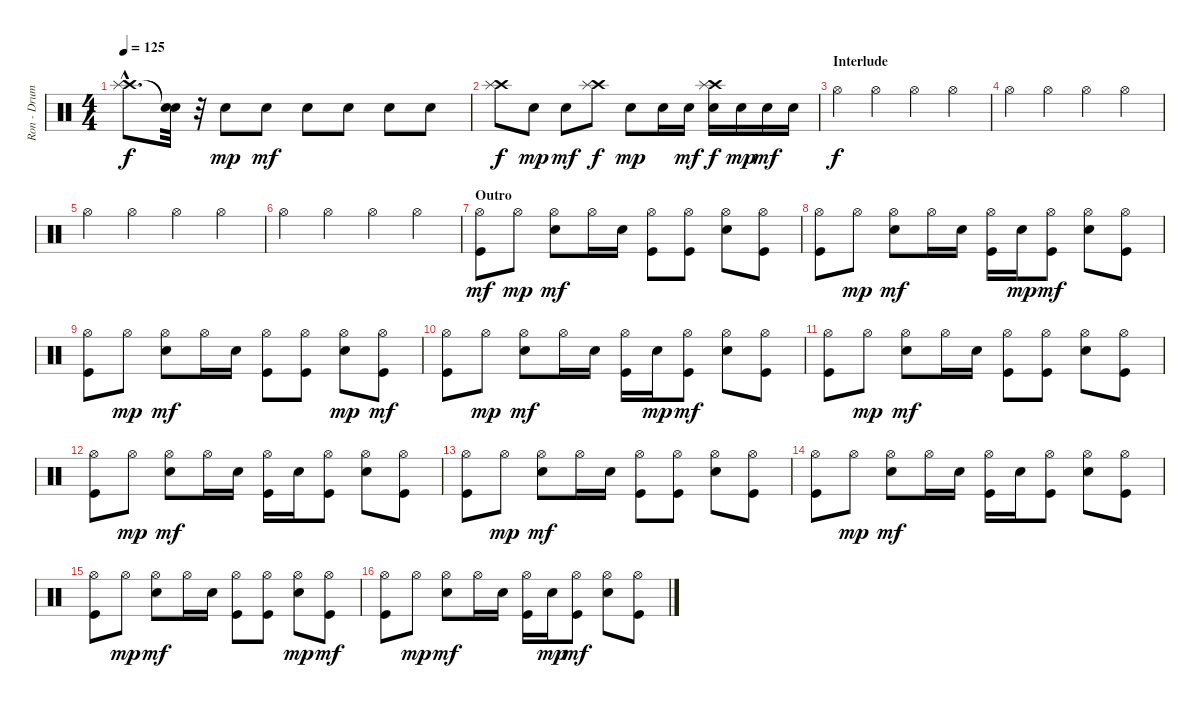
\track ("Ron - Drums" "Ron - Drum") {instrument percussion}
\staff {score}
\articulation defaults
\ts (4 4)
\tempo 125
\clef neutral
\ks c
("Crash high (hit)"{hac} "Splash (hit)"{hac}).8{d dy f} ("Snare (hit)"{t} "Snare (hit)"{t}).32 r.32 "Electric Snare (hit)".8{dy mp} "Electric Snare (hit)".8{dy mf} "Electric Snare (hit)".8 "Electric Snare (hit)".8 "Electric Snare (hit)".8 "Electric Snare (hit)".8 |
("Crash high (hit)" "Splash (hit)").8{dy f} "Electric Snare (hit)".8{dy mp} "Electric Snare (hit)".8{dy mf} ("Crash high (hit)" "Splash (hit)").8{dy f} "Electric Snare (hit)".8{dy mp} "Electric Snare (hit)".16 "Electric Snare (hit)".16{dy mf} ("Crash high (hit)" "Electric Snare (hit)" "Splash (hit)").16{dy f} "Electric Snare (hit)".16{dy mp} "Electric Snare (hit)".16{dy mf} "Electric Snare (hit)".16 |
\section ("" "Interlude")
"Hi-Hat (open)".4{dy f} "Hi-Hat (open)".4 "Hi-Hat (open)".4 "Hi-Hat (open)".4 |
"Hi-Hat (open)".4 "Hi-Hat (open)".4 "Hi-Hat (open)".4 "Hi-Hat (open)".4 |
"Hi-Hat (open)".4 "Hi-Hat (open)".4 "Hi-Hat (open)".4 "Hi-Hat (open)".4 |
"Hi-Hat (open)".4 "Hi-Hat (open)".4 "Hi-Hat (open)".4 "Hi-Hat (open)".4 |
\section ("" "Outro")
("Hi-Hat (open)" "Kick (hit)").8{dy mf} "Hi-Hat (open)".8{dy mp} ("Hi-Hat (open)" "Electric Snare (hit)").8{dy mf} "Hi-Hat (open)".16 "Electric Snare (hit)".16 ("Hi-Hat (open)" "Kick (hit)").8 ("Hi-Hat (open)" "Kick (hit)").8 ("Hi-Hat (open)" "Electric Snare (hit)").8 ("Hi-Hat (open)" "Kick (hit)").8 |
("Hi-Hat (open)" "Kick (hit)").8 "Hi-Hat (open)".8{dy mp} ("Hi-Hat (open)" "Electric Snare (hit)").8{dy mf} "Hi-Hat (open)".16 "Electric Snare (hit)".16 ("Hi-Hat (open)" "Kick (hit)").16 "Electric Snare (hit)".16{dy mp} ("Hi-Hat (open)" "Kick (hit)").8{dy mf} ("Hi-Hat (open)" "Electric Snare (hit)").8 ("Hi-Hat (open)" "Kick (hit)").8 |
("Hi-Hat (open)" "Kick (hit)").8 "Hi-Hat (open)".8{dy mp} ("Hi-Hat (open)" "Electric Snare (hit)").8{dy mf} "Hi-Hat (open)".16 "Electric Snare (hit)".16 ("Hi-Hat (open)" "Kick (hit)").8 ("Hi-Hat (open)" "Kick (hit)").8 ("Hi-Hat (open)" "Electric Snare (hit)").8{dy mp} ("Hi-Hat (open)" "Kick (hit)").8{dy mf} |
("Hi-Hat (open)" "Kick (hit)").8 "Hi-Hat (open)".8{dy mp} ("Hi-Hat (open)" "Electric Snare (hit)").8{dy mf} "Hi-Hat (open)".16 "Electric Snare (hit)".16 ("Hi-Hat (open)" "Kick (hit)").16 "Electric Snare (hit)".16{dy mp} ("Hi-Hat (open)" "Kick (hit)").8{dy mf} ("Hi-Hat (open)" "Electric Snare (hit)").8 ("Hi-Hat (open)" "Kick (hit)").8 |
("Hi-Hat (open)" "Kick (hit)").8 "Hi-Hat (open)".8{dy mp} ("Hi-Hat (open)" "Electric Snare (hit)").8{dy mf} "Hi-Hat (open)".16 "Electric Snare (hit)".16 ("Hi-Hat (open)" "Kick (hit)").8 ("Hi-Hat (open)" "Kick (hit)").8 ("Hi-Hat (open)" "Electric Snare (hit)").8 ("Hi-Hat (open)" "Kick (hit)").8 |
("Hi-Hat (open)" "Kick (hit)").8 "Hi-Hat (open)".8{dy mp} ("Hi-Hat (open)" "Electric Snare (hit)").8{dy mf} "Hi-Hat (open)".16 "Electric Snare (hit)".16 ("Hi-Hat (open)" "Kick (hit)").16 "Electric Snare (hit)".16 ("Hi-Hat (open)" "Kick (hit)").8 ("Hi-Hat (open)" "Electric Snare (hit)").8 ("Hi-Hat (open)" "Kick (hit)").8 |
("Hi-Hat (open)" "Kick (hit)").8 "Hi-Hat (open)".8{dy mp} ("Hi-Hat (open)" "Electric Snare (hit)").8{dy mf} "Hi-Hat (open)".16 "Electric Snare (hit)".16 ("Hi-Hat (open)" "Kick (hit)").8 ("Hi-Hat (open)" "Kick (hit)").8 ("Hi-Hat (open)" "Electric Snare (hit)").8 ("Hi-Hat (open)" "Kick (hit)").8 |
("Hi-Hat (open)" "Kick (hit)").8 "Hi-Hat (open)".8{dy mp} ("Hi-Hat (open)" "Electric Snare (hit)").8{dy mf} "Hi-Hat (open)".16 "Electric Snare (hit)".16 ("Hi-Hat (open)" "Kick (hit)").16 "Electric Snare (hit)".16 ("Hi-Hat (open)" "Kick (hit)").8 ("Hi-Hat (open)" "Electric Snare (hit)").8 ("Hi-Hat (open)" "Kick (hit)").8 |
("Hi-Hat (open)" "Kick (hit)").8 "Hi-Hat (open)".8{dy mp} ("Hi-Hat (open)" "Electric Snare (hit)").8{dy mf} "Hi-Hat (open)".16 "Electric Snare (hit)".16 ("Hi-Hat (open)" "Kick (hit)").8 ("Hi-Hat (open)" "Kick (hit)").8 ("Hi-Hat (open)" "Electric Snare (hit)").8{dy mp} ("Hi-Hat (open)" "Kick (hit)").8{dy mf} |
("Hi-Hat (open)" "Kick (hit)").8 "Hi-Hat (open)".8{dy mp} ("Hi-Hat (open)" "Electric Snare (hit)").8{dy mf} "Hi-Hat (open)".16 "Electric Snare (hit)".16 ("Hi-Hat (open)" "Kick (hit)").16 "Electric Snare (hit)".16{dy mp} ("Hi-Hat (open)" "Kick (hit)").8{dy mf} ("Hi-Hat (open)" "Electric Snare (hit)").8 ("Hi-Hat (open)" "Kick (hit)").8
